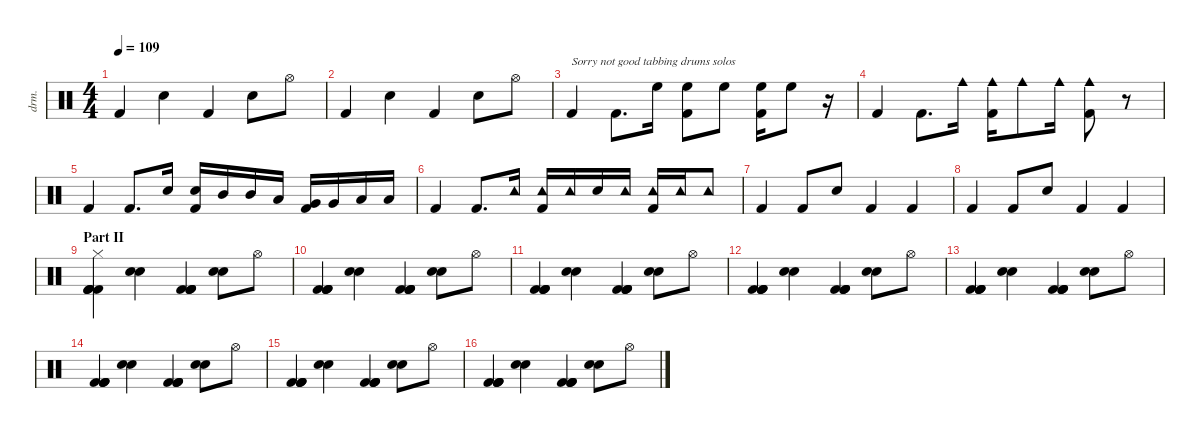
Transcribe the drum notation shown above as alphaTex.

\defaultSystemsLayout 4
\hideDynamics
\bracketExtendMode nobrackets
\otherSystemsTrackNameOrientation horizontal
\track ("Drums" "drm.") {instrument percussion}
\staff {score}
\articulation defaults
\ts (4 4)
\tempo 109
\clef neutral
\ks c "Kick (hit) 2".4{dy f} "Snare (hit) 2".4 "Kick (hit) 2".4 "Snare (hit) 2".8 "Hi-Hat (open)".8
|
"Kick (hit) 2".4 "Snare (hit) 2".4 "Kick (hit) 2".4 "Snare (hit) 2".8 "Hi-Hat (open)".8 |
"Kick (hit) 2".4{txt "Sorry not good tabbing drums solos"} "Kick (hit) 2".8{d} "High Floor Tom (hit)".16 ("High Floor Tom (hit)" "Kick (hit) 2").8 "High Floor Tom (hit)".8 ("High Floor Tom (hit)" "Kick (hit) 2").16 "High Floor Tom (hit)".8 r.16 |
"Kick (hit) 2".4 "Kick (hit) 2".8{d} "Cowbell medium (hit)".16 ("Cowbell medium (hit)" "Kick (hit) 2").16 "Cowbell medium (hit)".8 "Cowbell medium (hit)".16 ("Cowbell medium (hit)" "Kick (hit) 2").8 r.8 |
"Kick (hit) 2".4 "Kick (hit) 2".8{d} "Snare (hit) 2".16 ("Snare (hit) 2" "Kick (hit) 2").16 "Mid Tom (hit)".16 "Mid Tom (hit)".16 "Low Tom (hit)".16 ("Very Low Tom (hit)" "Kick (hit) 2").16 "Very Low Tom (hit)".16 "Low Floor Tom (hit)".16 "Low Floor Tom (hit)".16 |
"Kick (hit) 2".4 "Kick (hit) 2".8{d} "Tambourine (hit)".16 ("Tambourine (hit)" "Kick (hit) 2").16 "Tambourine (hit)".16 "Snare (hit) 2".16 "Tambourine (hit)".16 ("Tambourine (hit)" "Kick (hit) 2").16 "Tambourine (hit)".16 "Tambourine (hit)".8 |
"Kick (hit) 2".4 "Kick (hit) 2".8 "Snare (hit) 2".8 "Kick (hit) 2".4 "Kick (hit) 2".4 |
"Kick (hit) 2".4 "Kick (hit) 2".8 "Snare (hit) 2".8 "Kick (hit) 2".4 "Kick (hit) 2".4 |
\section ("" "Part II")
("Hi-Hat (closed)" "Kick (hit) 2" "Kick (hit) 2" "Kick (hit) 2" "Kick (hit) 2").4 ("Snare (hit) 2" "Snare (hit) 2").4 ("Kick (hit) 2" "Kick (hit) 2" "Kick (hit) 2" "Kick (hit) 2").4{dy fff} ("Snare (hit) 2" "Snare (hit) 2").8{dy f} "Hi-Hat (open)".8 |
("Kick (hit) 2" "Kick (hit) 2" "Kick (hit) 2" "Kick (hit) 2").4{dy fff} ("Snare (hit) 2" "Snare (hit) 2").4{dy f} ("Kick (hit) 2" "Kick (hit) 2" "Kick (hit) 2" "Kick (hit) 2").4{dy fff} ("Snare (hit) 2" "Snare (hit) 2").8{dy f} "Hi-Hat (open)".8 |
("Kick (hit) 2" "Kick (hit) 2" "Kick (hit) 2" "Kick (hit) 2").4{dy fff} ("Snare (hit) 2" "Snare (hit) 2").4{dy f} ("Kick (hit) 2" "Kick (hit) 2" "Kick (hit) 2" "Kick (hit) 2").4{dy fff} ("Snare (hit) 2" "Snare (hit) 2").8{dy f} "Hi-Hat (open)".8 |
("Kick (hit) 2" "Kick (hit) 2" "Kick (hit) 2" "Kick (hit) 2").4{dy fff} ("Snare (hit) 2" "Snare (hit) 2").4{dy f} ("Kick (hit) 2" "Kick (hit) 2" "Kick (hit) 2" "Kick (hit) 2").4{dy fff} ("Snare (hit) 2" "Snare (hit) 2").8{dy f} "Hi-Hat (open)".8 |
("Kick (hit) 2" "Kick (hit) 2" "Kick (hit) 2" "Kick (hit) 2").4{dy fff} ("Snare (hit) 2" "Snare (hit) 2").4{dy f} ("Kick (hit) 2" "Kick (hit) 2" "Kick (hit) 2" "Kick (hit) 2").4{dy fff} ("Snare (hit) 2" "Snare (hit) 2").8{dy f} "Hi-Hat (open)".8 |
("Kick (hit) 2" "Kick (hit) 2" "Kick (hit) 2" "Kick (hit) 2").4{dy fff} ("Snare (hit) 2" "Snare (hit) 2").4{dy f} ("Kick (hit) 2" "Kick (hit) 2" "Kick (hit) 2" "Kick (hit) 2").4{dy fff} ("Snare (hit) 2" "Snare (hit) 2").8{dy f} "Hi-Hat (open)".8 |
("Kick (hit) 2" "Kick (hit) 2" "Kick (hit) 2" "Kick (hit) 2").4{dy fff} ("Snare (hit) 2" "Snare (hit) 2").4{dy f} ("Kick (hit) 2" "Kick (hit) 2" "Kick (hit) 2" "Kick (hit) 2").4{dy fff} ("Snare (hit) 2" "Snare (hit) 2").8{dy f} "Hi-Hat (open)".8 |
("Kick (hit) 2" "Kick (hit) 2" "Kick (hit) 2" "Kick (hit) 2").4{dy fff} ("Snare (hit) 2" "Snare (hit) 2").4{dy f} ("Kick (hit) 2" "Kick (hit) 2" "Kick (hit) 2" "Kick (hit) 2").4{dy fff} ("Snare (hit) 2" "Snare (hit) 2").8{dy f} "Hi-Hat (open)".8
